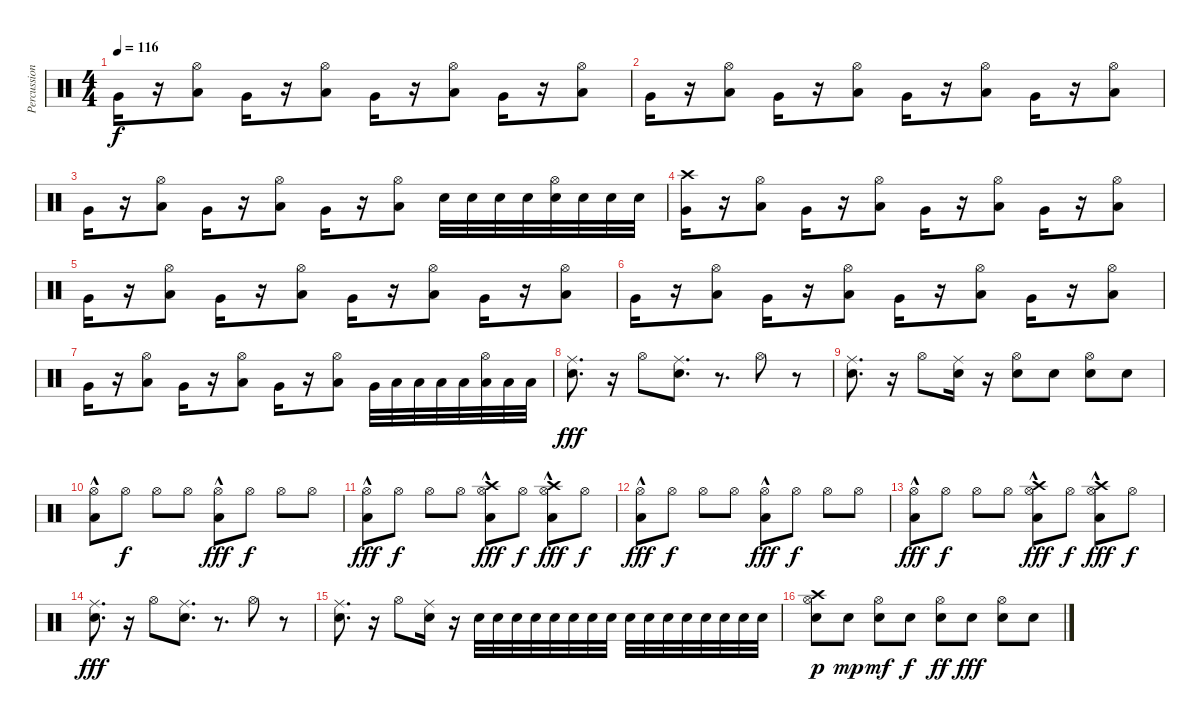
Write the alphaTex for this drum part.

\track ("Percussion (Glenn Porter)" "Percussion") {instrument percussion}
\staff {score}
\articulation defaults
\ts (4 4)
\tempo 116
\clef neutral
\ks c "Very Low Tom (hit)".16{dy f}
r.16 ("Hi-Hat (open)" "Low Tom (hit)").8 "Very Low Tom (hit)".16 r.16 ("Hi-Hat (open)" "Low Tom (hit)").8 "Very Low Tom (hit)".16 r.16 ("Hi-Hat (open)" "Low Tom (hit)").8 "Very Low Tom (hit)".16 r.16 ("Hi-Hat (open)" "Low Tom (hit)").8 |
"Very Low Tom (hit)".16 r.16 ("Hi-Hat (open)" "Low Tom (hit)").8 "Very Low Tom (hit)".16 r.16 ("Hi-Hat (open)" "Low Tom (hit)").8 "Very Low Tom (hit)".16 r.16 ("Hi-Hat (open)" "Low Tom (hit)").8 "Very Low Tom (hit)".16 r.16 ("Hi-Hat (open)" "Low Tom (hit)").8 |
"Very Low Tom (hit)".16 r.16 ("Hi-Hat (open)" "Low Tom (hit)").8 "Very Low Tom (hit)".16 r.16 ("Hi-Hat (open)" "Low Tom (hit)").8 "Very Low Tom (hit)".16 r.16 ("Hi-Hat (open)" "Low Tom (hit)").8 "Snare (hit) 2".32 "Snare (hit) 2".32 "Snare (hit) 2".32 "Snare (hit) 2".32 ("Hi-Hat (open)" "Snare (hit) 2").32 "Snare (hit) 2".32 "Snare (hit) 2".32 "Snare (hit) 2".32 |
("Crash high (hit)" "Very Low Tom (hit)").16 r.16 ("Hi-Hat (open)" "Low Tom (hit)").8 "Very Low Tom (hit)".16 r.16 ("Hi-Hat (open)" "Low Tom (hit)").8 "Very Low Tom (hit)".16 r.16 ("Hi-Hat (open)" "Low Tom (hit)").8 "Very Low Tom (hit)".16 r.16 ("Hi-Hat (open)" "Low Tom (hit)").8 |
"Very Low Tom (hit)".16 r.16 ("Hi-Hat (open)" "Low Tom (hit)").8 "Very Low Tom (hit)".16 r.16 ("Hi-Hat (open)" "Low Tom (hit)").8 "Very Low Tom (hit)".16 r.16 ("Hi-Hat (open)" "Low Tom (hit)").8 "Very Low Tom (hit)".16 r.16 ("Hi-Hat (open)" "Low Tom (hit)").8 |
"Very Low Tom (hit)".16 r.16 ("Hi-Hat (open)" "Low Tom (hit)").8 "Very Low Tom (hit)".16 r.16 ("Hi-Hat (open)" "Low Tom (hit)").8 "Very Low Tom (hit)".16 r.16 ("Hi-Hat (open)" "Low Tom (hit)").8 "Very Low Tom (hit)".16 r.16 ("Hi-Hat (open)" "Low Tom (hit)").8 |
"Very Low Tom (hit)".16 r.16 ("Hi-Hat (open)" "Low Tom (hit)").8 "Very Low Tom (hit)".16 r.16 ("Hi-Hat (open)" "Low Tom (hit)").8 "Very Low Tom (hit)".16 r.16 ("Hi-Hat (open)" "Low Tom (hit)").8 "Very Low Tom (hit)".32 "Low Tom (hit)".32 "Low Tom (hit)".32 "Low Tom (hit)".32 "Low Tom (hit)".32 ("Hi-Hat (open)" "Low Tom (hit)").32 "Low Tom (hit)".32 "Low Tom (hit)".32 |
("Ride (middle)" "Electric Snare (hit)").8{d dy fff} r.16 "Hi-Hat (open)".8 ("Ride (middle)" "Electric Snare (hit)").8{d} r.8{d} "Hi-Hat (open)".8 r.8 |
("Ride (middle)" "Electric Snare (hit)").8{d} r.16 "Hi-Hat (open)".8 ("Ride (middle)" "Electric Snare (hit)").16 r.16 ("Hi-Hat (open)" "Snare (hit) 2").8 "Snare (hit) 2".8 ("Hi-Hat (open)" "Snare (hit) 2").8 "Snare (hit) 2".8 |
("Hi-Hat (open)" "Low Tom (hit)"{hac}).8 "Hi-Hat (open)".8{dy f} "Hi-Hat (open)".8 "Hi-Hat (open)".8 ("Hi-Hat (open)" "Low Tom (hit)"{hac}).8{dy fff} "Hi-Hat (open)".8{dy f} "Hi-Hat (open)".8 "Hi-Hat (open)".8 |
("Hi-Hat (open)" "Low Tom (hit)"{hac}).8{dy fff} "Hi-Hat (open)".8{dy f} "Hi-Hat (open)".8 "Hi-Hat (open)".8 ("Crash high (hit)" "Hi-Hat (open)" "Low Tom (hit)"{hac}).8{dy fff} "Hi-Hat (open)".8{dy f} ("Crash high (hit)" "Hi-Hat (open)" "Low Tom (hit)"{hac}).8{dy fff} "Hi-Hat (open)".8{dy f} |
("Hi-Hat (open)" "Low Tom (hit)"{hac}).8{dy fff} "Hi-Hat (open)".8{dy f} "Hi-Hat (open)".8 "Hi-Hat (open)".8 ("Hi-Hat (open)" "Low Tom (hit)"{hac}).8{dy fff} "Hi-Hat (open)".8{dy f} "Hi-Hat (open)".8 "Hi-Hat (open)".8 |
("Hi-Hat (open)" "Low Tom (hit)"{hac}).8{dy fff} "Hi-Hat (open)".8{dy f} "Hi-Hat (open)".8 "Hi-Hat (open)".8 ("Crash high (hit)" "Hi-Hat (open)" "Low Tom (hit)"{hac}).8{dy fff} "Hi-Hat (open)".8{dy f} ("Crash high (hit)" "Hi-Hat (open)" "Low Tom (hit)"{hac}).8{dy fff} "Hi-Hat (open)".8{dy f} |
("Ride (middle)" "Electric Snare (hit)").8{d dy fff} r.16 "Hi-Hat (open)".8 ("Ride (middle)" "Electric Snare (hit)").8{d} r.8{d} "Hi-Hat (open)".8 r.8 |
("Ride (middle)" "Electric Snare (hit)").8{d} r.16 "Hi-Hat (open)".8 ("Ride (middle)" "Electric Snare (hit)").16 r.16 "Snare (hit) 2".32 "Snare (hit) 2".32 "Snare (hit) 2".32 "Snare (hit) 2".32 "Snare (hit) 2".32 "Snare (hit) 2".32 "Snare (hit) 2".32 "Snare (hit) 2".32 "Snare (hit) 2".32 "Snare (hit) 2".32 "Snare (hit) 2".32 "Snare (hit) 2".32 "Snare (hit) 2".32 "Snare (hit) 2".32 "Snare (hit) 2".32 "Snare (hit) 2".32 |
("Crash high (hit)" "Hi-Hat (open)" "Snare (hit) 2").8{dy p} "Snare (hit) 2".8{dy mp} ("Hi-Hat (open)" "Snare (hit) 2").8{dy mf} "Snare (hit) 2".8{dy f} ("Hi-Hat (open)" "Snare (hit) 2").8{dy ff} "Snare (hit) 2".8{dy fff} ("Hi-Hat (open)" "Snare (hit) 2").8 "Snare (hit) 2".8
